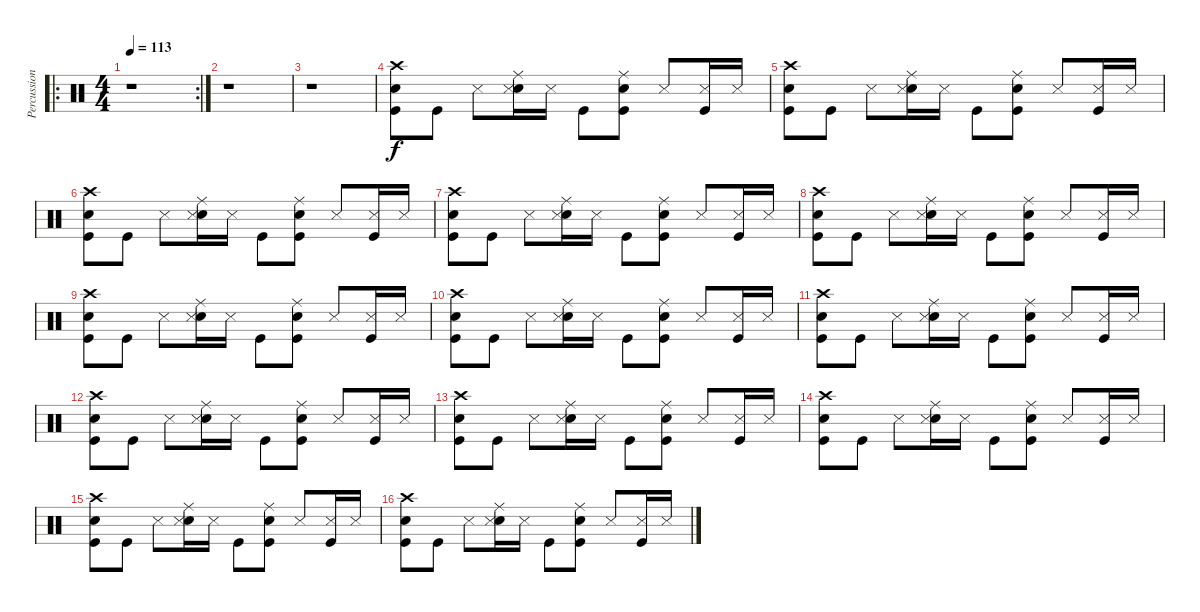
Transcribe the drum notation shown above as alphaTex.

\track ("Percussion" "Percussion") {instrument percussion}
\staff {score}
\articulation defaults
\ro
\rc 2
\ts (4 4)
\tempo 113
\clef neutral
\ks c
r.1{dy f} |
r.1 |
r.1 |
("Crash high (hit)" "Electric Snare (hit)" "Kick (hit)").8 "Kick (hit)".8 "Snare (side stick) 3".8 ("Ride (middle)" "Electric Snare (hit)" "Snare (side stick) 3").16 "Snare (side stick) 3".16 "Kick (hit)".8 ("Ride (middle)" "Electric Snare (hit)" "Kick (hit)").8 "Snare (side stick) 3".8 ("Snare (side stick) 3" "Kick (hit)").16 "Snare (side stick) 3".16 |
("Crash high (hit)" "Electric Snare (hit)" "Kick (hit)").8 "Kick (hit)".8 "Snare (side stick) 3".8 ("Ride (middle)" "Electric Snare (hit)" "Snare (side stick) 3").16 "Snare (side stick) 3".16 "Kick (hit)".8 ("Ride (middle)" "Electric Snare (hit)" "Kick (hit)").8 "Snare (side stick) 3".8 ("Snare (side stick) 3" "Kick (hit)").16 "Snare (side stick) 3".16 |
("Crash high (hit)" "Electric Snare (hit)" "Kick (hit)").8 "Kick (hit)".8 "Snare (side stick) 3".8 ("Ride (middle)" "Electric Snare (hit)" "Snare (side stick) 3").16 "Snare (side stick) 3".16 "Kick (hit)".8 ("Ride (middle)" "Electric Snare (hit)" "Kick (hit)").8 "Snare (side stick) 3".8 ("Snare (side stick) 3" "Kick (hit)").16 "Snare (side stick) 3".16 |
("Crash high (hit)" "Electric Snare (hit)" "Kick (hit)").8 "Kick (hit)".8 "Snare (side stick) 3".8 ("Ride (middle)" "Electric Snare (hit)" "Snare (side stick) 3").16 "Snare (side stick) 3".16 "Kick (hit)".8 ("Ride (middle)" "Electric Snare (hit)" "Kick (hit)").8 "Snare (side stick) 3".8 ("Snare (side stick) 3" "Kick (hit)").16 "Snare (side stick) 3".16 |
("Crash high (hit)" "Electric Snare (hit)" "Kick (hit)").8 "Kick (hit)".8 "Snare (side stick) 3".8 ("Ride (middle)" "Electric Snare (hit)" "Snare (side stick) 3").16 "Snare (side stick) 3".16 "Kick (hit)".8 ("Ride (middle)" "Electric Snare (hit)" "Kick (hit)").8 "Snare (side stick) 3".8 ("Snare (side stick) 3" "Kick (hit)").16 "Snare (side stick) 3".16 |
("Crash high (hit)" "Electric Snare (hit)" "Kick (hit)").8 "Kick (hit)".8 "Snare (side stick) 3".8 ("Ride (middle)" "Electric Snare (hit)" "Snare (side stick) 3").16 "Snare (side stick) 3".16 "Kick (hit)".8 ("Ride (middle)" "Electric Snare (hit)" "Kick (hit)").8 "Snare (side stick) 3".8 ("Snare (side stick) 3" "Kick (hit)").16 "Snare (side stick) 3".16 |
("Crash high (hit)" "Electric Snare (hit)" "Kick (hit)").8 "Kick (hit)".8 "Snare (side stick) 3".8 ("Ride (middle)" "Electric Snare (hit)" "Snare (side stick) 3").16 "Snare (side stick) 3".16 "Kick (hit)".8 ("Ride (middle)" "Electric Snare (hit)" "Kick (hit)").8 "Snare (side stick) 3".8 ("Snare (side stick) 3" "Kick (hit)").16 "Snare (side stick) 3".16 |
("Crash high (hit)" "Electric Snare (hit)" "Kick (hit)").8 "Kick (hit)".8 "Snare (side stick) 3".8 ("Ride (middle)" "Electric Snare (hit)" "Snare (side stick) 3").16 "Snare (side stick) 3".16 "Kick (hit)".8 ("Ride (middle)" "Electric Snare (hit)" "Kick (hit)").8 "Snare (side stick) 3".8 ("Snare (side stick) 3" "Kick (hit)").16 "Snare (side stick) 3".16 |
("Crash high (hit)" "Electric Snare (hit)" "Kick (hit)").8 "Kick (hit)".8 "Snare (side stick) 3".8 ("Ride (middle)" "Electric Snare (hit)" "Snare (side stick) 3").16 "Snare (side stick) 3".16 "Kick (hit)".8 ("Ride (middle)" "Electric Snare (hit)" "Kick (hit)").8 "Snare (side stick) 3".8 ("Snare (side stick) 3" "Kick (hit)").16 "Snare (side stick) 3".16 |
("Crash high (hit)" "Electric Snare (hit)" "Kick (hit)").8 "Kick (hit)".8 "Snare (side stick) 3".8 ("Ride (middle)" "Electric Snare (hit)" "Snare (side stick) 3").16 "Snare (side stick) 3".16 "Kick (hit)".8 ("Ride (middle)" "Electric Snare (hit)" "Kick (hit)").8 "Snare (side stick) 3".8 ("Snare (side stick) 3" "Kick (hit)").16 "Snare (side stick) 3".16 |
("Crash high (hit)" "Electric Snare (hit)" "Kick (hit)").8 "Kick (hit)".8 "Snare (side stick) 3".8 ("Ride (middle)" "Electric Snare (hit)" "Snare (side stick) 3").16 "Snare (side stick) 3".16 "Kick (hit)".8 ("Ride (middle)" "Electric Snare (hit)" "Kick (hit)").8 "Snare (side stick) 3".8 ("Snare (side stick) 3" "Kick (hit)").16 "Snare (side stick) 3".16 |
("Crash high (hit)" "Electric Snare (hit)" "Kick (hit)").8 "Kick (hit)".8 "Snare (side stick) 3".8 ("Ride (middle)" "Electric Snare (hit)" "Snare (side stick) 3").16 "Snare (side stick) 3".16 "Kick (hit)".8 ("Ride (middle)" "Electric Snare (hit)" "Kick (hit)").8 "Snare (side stick) 3".8 ("Snare (side stick) 3" "Kick (hit)").16 "Snare (side stick) 3".16 |
("Crash high (hit)" "Electric Snare (hit)" "Kick (hit)").8 "Kick (hit)".8 "Snare (side stick) 3".8 ("Ride (middle)" "Electric Snare (hit)" "Snare (side stick) 3").16 "Snare (side stick) 3".16 "Kick (hit)".8 ("Ride (middle)" "Electric Snare (hit)" "Kick (hit)").8 "Snare (side stick) 3".8 ("Snare (side stick) 3" "Kick (hit)").16 "Snare (side stick) 3".16
